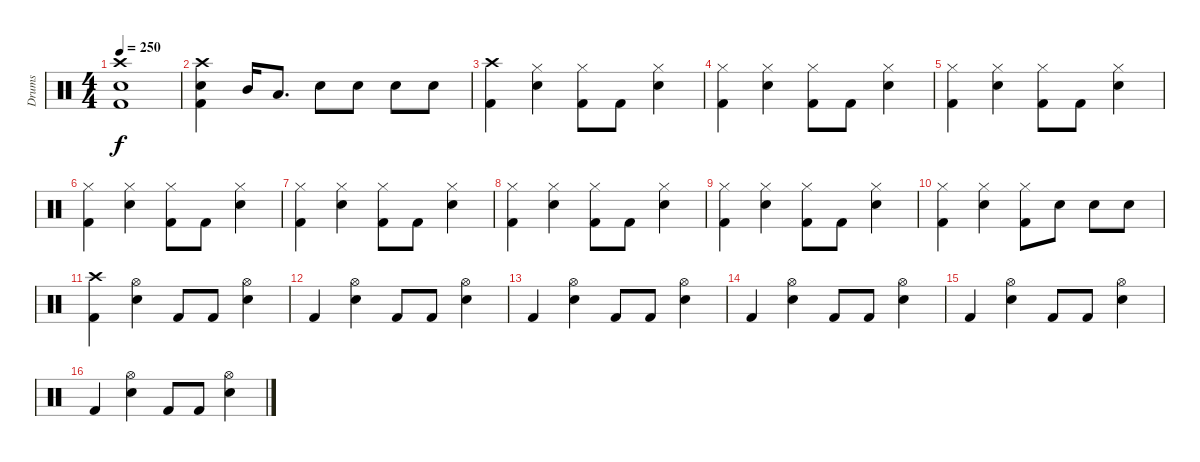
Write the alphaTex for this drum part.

\track ("Drums" "Drums") {instrument percussion}
\staff {score}
\articulation defaults
\ts (4 4)
\tempo 250
\clef neutral
\ks c
("Crash high (hit)" "Snare (hit) 2" "Kick (hit) 2").1{dy f} |
("Crash high (hit)" "Snare (hit) 2" "Kick (hit) 2").4 "Mid Tom (hit)".16 "Low Tom (hit)".8{d} "Snare (hit) 2".8 "Snare (hit) 2".8 "Snare (hit) 2".8 "Snare (hit) 2".8 |
("Crash high (hit)" "Kick (hit) 2").4 ("Hi-Hat (closed)" "Snare (hit) 2").4 ("Hi-Hat (closed)" "Kick (hit) 2").8 "Kick (hit) 2".8 ("Hi-Hat (closed)" "Snare (hit) 2").4 |
("Hi-Hat (closed)" "Kick (hit) 2").4 ("Hi-Hat (closed)" "Snare (hit) 2").4 ("Hi-Hat (closed)" "Kick (hit) 2").8 "Kick (hit) 2".8 ("Hi-Hat (closed)" "Snare (hit) 2").4 |
("Hi-Hat (closed)" "Kick (hit) 2").4 ("Hi-Hat (closed)" "Snare (hit) 2").4 ("Hi-Hat (closed)" "Kick (hit) 2").8 "Kick (hit) 2".8 ("Hi-Hat (closed)" "Snare (hit) 2").4 |
("Hi-Hat (closed)" "Kick (hit) 2").4 ("Hi-Hat (closed)" "Snare (hit) 2").4 ("Hi-Hat (closed)" "Kick (hit) 2").8 "Kick (hit) 2".8 ("Hi-Hat (closed)" "Snare (hit) 2").4 |
("Hi-Hat (closed)" "Kick (hit) 2").4 ("Hi-Hat (closed)" "Snare (hit) 2").4 ("Hi-Hat (closed)" "Kick (hit) 2").8 "Kick (hit) 2".8 ("Hi-Hat (closed)" "Snare (hit) 2").4 |
("Hi-Hat (closed)" "Kick (hit) 2").4 ("Hi-Hat (closed)" "Snare (hit) 2").4 ("Hi-Hat (closed)" "Kick (hit) 2").8 "Kick (hit) 2".8 ("Hi-Hat (closed)" "Snare (hit) 2").4 |
("Hi-Hat (closed)" "Kick (hit) 2").4 ("Hi-Hat (closed)" "Snare (hit) 2").4 ("Hi-Hat (closed)" "Kick (hit) 2").8 "Kick (hit) 2".8 ("Hi-Hat (closed)" "Snare (hit) 2").4 |
("Hi-Hat (closed)" "Kick (hit) 2").4 ("Hi-Hat (closed)" "Snare (hit) 2").4 ("Hi-Hat (closed)" "Kick (hit) 2").8 "Snare (hit) 2".8 "Snare (hit) 2".8 "Snare (hit) 2".8 |
("Crash high (hit)" "Kick (hit) 2").4 ("Hi-Hat (open)" "Snare (hit) 2").4 "Kick (hit) 2".8 "Kick (hit) 2".8 ("Hi-Hat (open)" "Snare (hit) 2").4 |
"Kick (hit) 2".4 ("Hi-Hat (open)" "Snare (hit) 2").4 "Kick (hit) 2".8 "Kick (hit) 2".8 ("Hi-Hat (open)" "Snare (hit) 2").4 |
"Kick (hit) 2".4 ("Hi-Hat (open)" "Snare (hit) 2").4 "Kick (hit) 2".8 "Kick (hit) 2".8 ("Hi-Hat (open)" "Snare (hit) 2").4 |
"Kick (hit) 2".4 ("Hi-Hat (open)" "Snare (hit) 2").4 "Kick (hit) 2".8 "Kick (hit) 2".8 ("Hi-Hat (open)" "Snare (hit) 2").4 |
"Kick (hit) 2".4 ("Hi-Hat (open)" "Snare (hit) 2").4 "Kick (hit) 2".8 "Kick (hit) 2".8 ("Hi-Hat (open)" "Snare (hit) 2").4 |
"Kick (hit) 2".4 ("Hi-Hat (open)" "Snare (hit) 2").4 "Kick (hit) 2".8 "Kick (hit) 2".8 ("Hi-Hat (open)" "Snare (hit) 2").4
